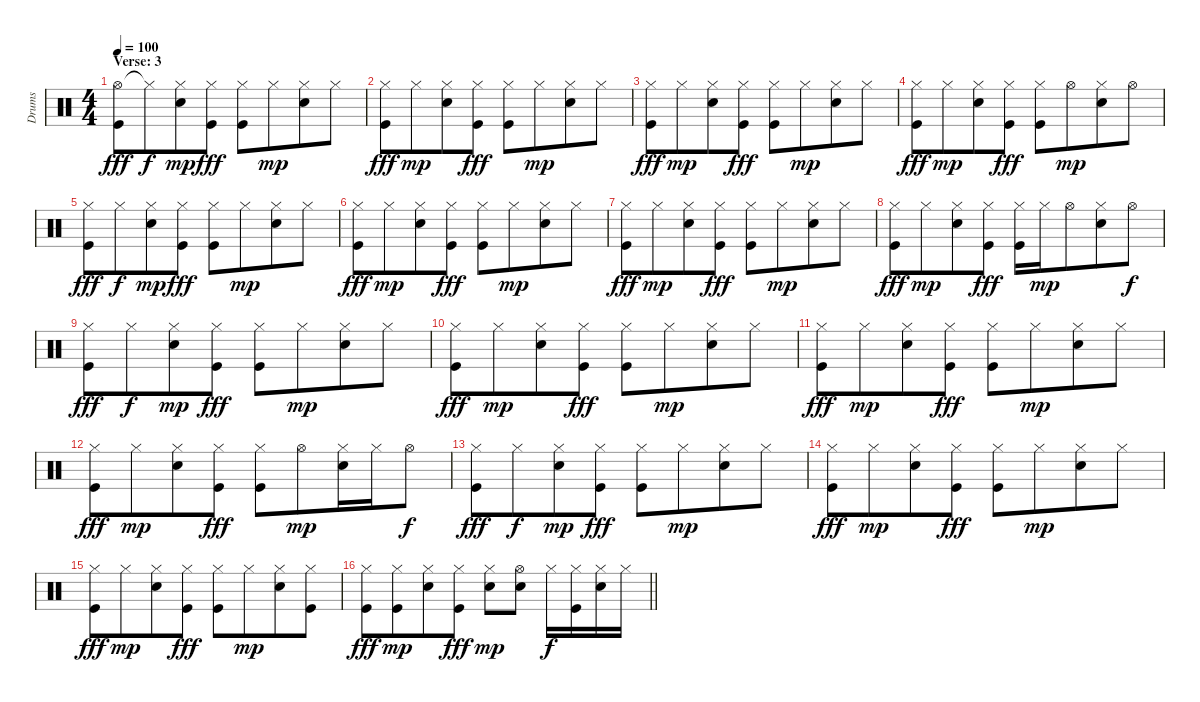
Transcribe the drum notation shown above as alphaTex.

\track ("Drums" "Drums") {instrument percussion}
\staff {score}
\articulation defaults
\ts (4 4)
\section ("" "Verse: 3")
\tempo 100
\clef neutral
\ks c
("Hi-Hat (open)" "Kick (hit)").8{dy fff} "Hi-Hat (closed)"{t}.8{dy f beam merge} ("Hi-Hat (closed)" "Snare (hit) 2").8{dy mp} ("Hi-Hat (closed)" "Kick (hit)").8{dy fff} ("Hi-Hat (closed)" "Kick (hit)").8 "Hi-Hat (closed)".8{dy mp beam merge} ("Hi-Hat (closed)" "Snare (hit) 2").8 "Hi-Hat (closed)".8 |
("Hi-Hat (closed)" "Kick (hit)").8{dy fff} "Hi-Hat (closed)".8{dy mp beam merge} ("Hi-Hat (closed)" "Snare (hit) 2").8 ("Hi-Hat (closed)" "Kick (hit)").8{dy fff} ("Hi-Hat (closed)" "Kick (hit)").8 "Hi-Hat (closed)".8{dy mp beam merge} ("Hi-Hat (closed)" "Snare (hit) 2").8 "Hi-Hat (closed)".8 |
("Hi-Hat (closed)" "Kick (hit)").8{dy fff} "Hi-Hat (closed)".8{dy mp beam merge} ("Hi-Hat (closed)" "Snare (hit) 2").8 ("Hi-Hat (closed)" "Kick (hit)").8{dy fff} ("Hi-Hat (closed)" "Kick (hit)").8 "Hi-Hat (closed)".8{dy mp beam merge} ("Hi-Hat (closed)" "Snare (hit) 2").8 "Hi-Hat (closed)".8 |
("Hi-Hat (closed)" "Kick (hit)").8{dy fff} "Hi-Hat (closed)".8{dy mp beam merge} ("Hi-Hat (closed)" "Snare (hit) 2").8 ("Hi-Hat (closed)" "Kick (hit)").8{dy fff} ("Hi-Hat (closed)" "Kick (hit)").8 "Hi-Hat (open)".8{dy mp beam merge} ("Hi-Hat (closed)" "Snare (hit) 2").8 "Hi-Hat (open)".8 |
("Hi-Hat (closed)" "Kick (hit)").8{dy fff} "Hi-Hat (closed)".8{dy f beam merge} ("Hi-Hat (closed)" "Snare (hit) 2").8{dy mp} ("Hi-Hat (closed)" "Kick (hit)").8{dy fff} ("Hi-Hat (closed)" "Kick (hit)").8 "Hi-Hat (closed)".8{dy mp beam merge} ("Hi-Hat (closed)" "Snare (hit) 2").8 "Hi-Hat (closed)".8 |
("Hi-Hat (closed)" "Kick (hit)").8{dy fff} "Hi-Hat (closed)".8{dy mp beam merge} ("Hi-Hat (closed)" "Snare (hit) 2").8 ("Hi-Hat (closed)" "Kick (hit)").8{dy fff} ("Hi-Hat (closed)" "Kick (hit)").8 "Hi-Hat (closed)".8{dy mp beam merge} ("Hi-Hat (closed)" "Snare (hit) 2").8 "Hi-Hat (closed)".8 |
("Hi-Hat (closed)" "Kick (hit)").8{dy fff} "Hi-Hat (closed)".8{dy mp beam merge} ("Hi-Hat (closed)" "Snare (hit) 2").8 ("Hi-Hat (closed)" "Kick (hit)").8{dy fff} ("Hi-Hat (closed)" "Kick (hit)").8 "Hi-Hat (closed)".8{dy mp beam merge} ("Hi-Hat (closed)" "Snare (hit) 2").8 "Hi-Hat (closed)".8 |
("Hi-Hat (closed)" "Kick (hit)").8{dy fff} "Hi-Hat (closed)".8{dy mp beam merge} ("Hi-Hat (closed)" "Snare (hit) 2").8 ("Hi-Hat (closed)" "Kick (hit)").8{dy fff} ("Hi-Hat (closed)" "Kick (hit)").16 "Hi-Hat (closed)".16{dy mp beam merge} "Hi-Hat (open)".8{beam merge} ("Hi-Hat (closed)" "Snare (hit) 2").8 "Hi-Hat (open)".8{dy f} |
("Hi-Hat (closed)" "Kick (hit)").8{dy fff} "Hi-Hat (closed)".8{dy f beam merge} ("Hi-Hat (closed)" "Snare (hit) 2").8{dy mp} ("Hi-Hat (closed)" "Kick (hit)").8{dy fff} ("Hi-Hat (closed)" "Kick (hit)").8 "Hi-Hat (closed)".8{dy mp beam merge} ("Hi-Hat (closed)" "Snare (hit) 2").8 "Hi-Hat (closed)".8 |
("Hi-Hat (closed)" "Kick (hit)").8{dy fff} "Hi-Hat (closed)".8{dy mp beam merge} ("Hi-Hat (closed)" "Snare (hit) 2").8 ("Hi-Hat (closed)" "Kick (hit)").8{dy fff} ("Hi-Hat (closed)" "Kick (hit)").8 "Hi-Hat (closed)".8{dy mp beam merge} ("Hi-Hat (closed)" "Snare (hit) 2").8 "Hi-Hat (closed)".8 |
("Hi-Hat (closed)" "Kick (hit)").8{dy fff} "Hi-Hat (closed)".8{dy mp beam merge} ("Hi-Hat (closed)" "Snare (hit) 2").8 ("Hi-Hat (closed)" "Kick (hit)").8{dy fff} ("Hi-Hat (closed)" "Kick (hit)").8 "Hi-Hat (closed)".8{dy mp beam merge} ("Hi-Hat (closed)" "Snare (hit) 2").8 "Hi-Hat (closed)".8 |
("Hi-Hat (closed)" "Kick (hit)").8{dy fff} "Hi-Hat (closed)".8{dy mp beam merge} ("Hi-Hat (closed)" "Snare (hit) 2").8 ("Hi-Hat (closed)" "Kick (hit)").8{dy fff} ("Hi-Hat (closed)" "Kick (hit)").8 "Hi-Hat (open)".8{dy mp beam merge} ("Hi-Hat (closed)" "Snare (hit) 2").16 "Hi-Hat (closed)".16 "Hi-Hat (open)".8{dy f} |
("Hi-Hat (closed)" "Kick (hit)").8{dy fff} "Hi-Hat (closed)".8{dy f beam merge} ("Hi-Hat (closed)" "Snare (hit) 2").8{dy mp} ("Hi-Hat (closed)" "Kick (hit)").8{dy fff} ("Hi-Hat (closed)" "Kick (hit)").8 "Hi-Hat (closed)".8{dy mp beam merge} ("Hi-Hat (closed)" "Snare (hit) 2").8 "Hi-Hat (closed)".8 |
("Hi-Hat (closed)" "Kick (hit)").8{dy fff} "Hi-Hat (closed)".8{dy mp beam merge} ("Hi-Hat (closed)" "Snare (hit) 2").8 ("Hi-Hat (closed)" "Kick (hit)").8{dy fff} ("Hi-Hat (closed)" "Kick (hit)").8 "Hi-Hat (closed)".8{dy mp beam merge} ("Hi-Hat (closed)" "Snare (hit) 2").8 "Hi-Hat (closed)".8 |
("Hi-Hat (closed)" "Kick (hit)").8{dy fff} "Hi-Hat (closed)".8{dy mp beam merge} ("Hi-Hat (closed)" "Snare (hit) 2").8 ("Hi-Hat (closed)" "Kick (hit)").8{dy fff} ("Hi-Hat (closed)" "Kick (hit)").8 "Hi-Hat (closed)".8{dy mp beam merge} ("Hi-Hat (closed)" "Snare (hit) 2").8 ("Hi-Hat (closed)" "Kick (hit)").8 |
\barLineRight lightlight
("Hi-Hat (closed)" "Kick (hit)").8{dy fff} ("Hi-Hat (closed)" "Kick (hit)").8{dy mp beam merge} ("Hi-Hat (closed)" "Snare (hit) 2").8 ("Hi-Hat (closed)" "Kick (hit)").8{dy fff} ("Hi-Hat (closed)" "Snare (hit) 2").8{dy mp} ("Hi-Hat (open)" "Snare (hit) 2").8 "Hi-Hat (closed)".16{dy f} ("Hi-Hat (closed)" "Kick (hit)").16 ("Hi-Hat (closed)" "Snare (hit) 2").16 "Hi-Hat (closed)".16
